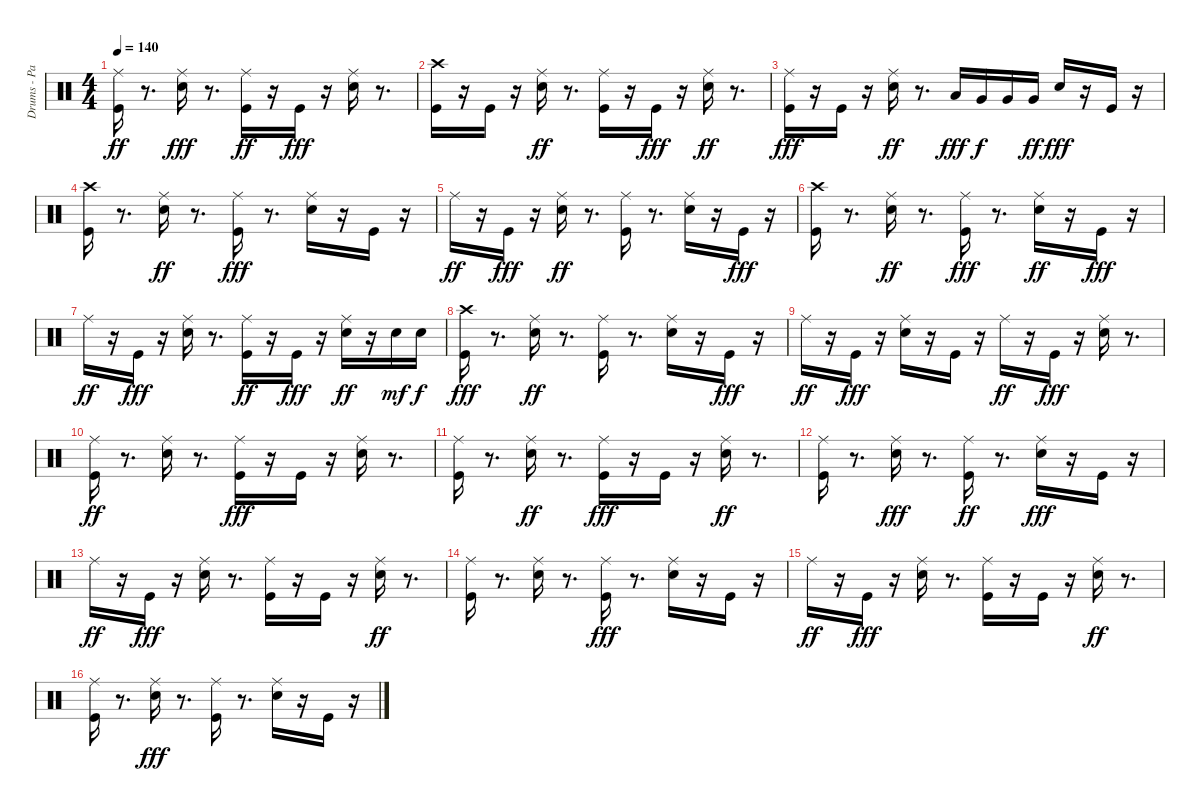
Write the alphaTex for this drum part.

\track ("Drums - Paice" "Drums - Pa") {instrument percussion}
\staff {score}
\articulation defaults
\ts (4 4)
\tempo 140
\clef neutral
\ks c
("Kick (hit)" "Ride (middle)").16{dy ff} r.8{d} ("Ride (middle)" "Snare (hit) 2").16{dy fff} r.8{d} ("Kick (hit)" "Ride (middle)").16{dy ff} r.16 "Kick (hit)".16{dy fff} r.16 ("Ride (middle)" "Snare (hit) 2").16 r.8{d} |
("Kick (hit)" "Crash high (hit)").16 r.16 "Kick (hit)".16 r.16 ("Snare (hit) 2" "Ride (middle)").16{dy ff} r.8{d} ("Kick (hit)" "Ride (middle)").16 r.16 "Kick (hit)".16{dy fff} r.16 ("Snare (hit) 2" "Ride (middle)").16{dy ff} r.8{d} |
("Ride (middle)" "Kick (hit)").16{dy fff} r.16 "Kick (hit)".16 r.16 ("Snare (hit) 2" "Ride (middle)").16{dy ff} r.8{d} "Low Tom (hit)".16{dy fff} "Very Low Tom (hit)".16{dy f} "Very Low Tom (hit)".16 "Very Low Tom (hit)".16{dy ff} "Snare (hit) 2".16{dy fff} r.16 "Kick (hit)".16 r.16 |
("Kick (hit)" "Crash high (hit)").16 r.8{d} ("Snare (hit) 2" "Ride (middle)").16{dy ff} r.8{d} ("Ride (middle)" "Kick (hit)").16{dy fff} r.8{d} ("Ride (middle)" "Snare (hit) 2").16 r.16 "Kick (hit)".16 r.16 |
"Ride (middle)".16{dy ff} r.16 "Kick (hit)".16{dy fff} r.16 ("Snare (hit) 2" "Ride (middle)").16{dy ff} r.8{d} ("Kick (hit)" "Ride (middle)").16 r.8{d} ("Snare (hit) 2" "Ride (middle)").16 r.16 "Kick (hit)".16{dy fff} r.16 |
("Kick (hit)" "Crash high (hit)").16 r.8{d} ("Snare (hit) 2" "Ride (middle)").16{dy ff} r.8{d} ("Ride (middle)" "Kick (hit)").16{dy fff} r.8{d} ("Snare (hit) 2" "Ride (middle)").16{dy ff} r.16 "Kick (hit)".16{dy fff} r.16 |
"Ride (middle)".16{dy ff} r.16 "Kick (hit)".16{dy fff} r.16 ("Ride (middle)" "Snare (hit) 2").16 r.8{d} ("Kick (hit)" "Ride (middle)").16{dy ff} r.16 "Kick (hit)".16{dy fff} r.16 ("Snare (hit) 2" "Ride (middle)").16{dy ff} r.16 "Snare (hit) 2".16{dy mf} "Snare (hit) 2".16{dy f} |
("Kick (hit)" "Crash high (hit)").16{dy fff} r.8{d} ("Snare (hit) 2" "Ride (middle)").16{dy ff} r.8{d} ("Kick (hit)" "Ride (middle)").16 r.8{d} ("Snare (hit) 2" "Ride (middle)").16 r.16 "Kick (hit)".16{dy fff} r.16 |
"Ride (middle)".16{dy ff} r.16 "Kick (hit)".16{dy fff} r.16 ("Ride (middle)" "Snare (hit) 2").16 r.16 "Kick (hit)".16 r.16 "Ride (middle)".16{dy ff} r.16 "Kick (hit)".16{dy fff} r.16 ("Ride (middle)" "Snare (hit) 2").16 r.8{d} |
("Kick (hit)" "Ride (middle)").16{dy ff} r.8{d} ("Snare (hit) 2" "Ride (middle)").16 r.8{d} ("Ride (middle)" "Kick (hit)").16{dy fff} r.16 "Kick (hit)".16 r.16 ("Ride (middle)" "Snare (hit) 2").16 r.8{d} |
("Ride (middle)" "Kick (hit)").16 r.8{d} ("Snare (hit) 2" "Ride (middle)").16{dy ff} r.8{d} ("Ride (middle)" "Kick (hit)").16{dy fff} r.16 "Kick (hit)".16 r.16 ("Snare (hit) 2" "Ride (middle)").16{dy ff} r.8{d} |
("Kick (hit)" "Ride (middle)").16 r.8{d} ("Ride (middle)" "Snare (hit) 2").16{dy fff} r.8{d} ("Kick (hit)" "Ride (middle)").16{dy ff} r.8{d} ("Ride (middle)" "Snare (hit) 2").16{dy fff} r.16 "Kick (hit)".16 r.16 |
"Ride (middle)".16{dy ff} r.16 "Kick (hit)".16{dy fff} r.16 ("Ride (middle)" "Snare (hit) 2").16 r.8{d} ("Ride (middle)" "Kick (hit)").16 r.16 "Kick (hit)".16 r.16 ("Snare (hit) 2" "Ride (middle)").16{dy ff} r.8{d} |
("Kick (hit)" "Ride (middle)").16 r.8{d} ("Snare (hit) 2" "Ride (middle)").16 r.8{d} ("Ride (middle)" "Kick (hit)").16{dy fff} r.8{d} ("Ride (middle)" "Snare (hit) 2").16 r.16 "Kick (hit)".16 r.16 |
"Ride (middle)".16{dy ff} r.16 "Kick (hit)".16{dy fff} r.16 ("Ride (middle)" "Snare (hit) 2").16 r.8{d} ("Ride (middle)" "Kick (hit)").16 r.16 "Kick (hit)".16 r.16 ("Snare (hit) 2" "Ride (middle)").16{dy ff} r.8{d} |
("Kick (hit)" "Ride (middle)").16 r.8{d} ("Ride (middle)" "Snare (hit) 2").16{dy fff} r.8{d} ("Ride (middle)" "Kick (hit)").16 r.8{d} ("Ride (middle)" "Snare (hit) 2").16 r.16 "Kick (hit)".16 r.16
